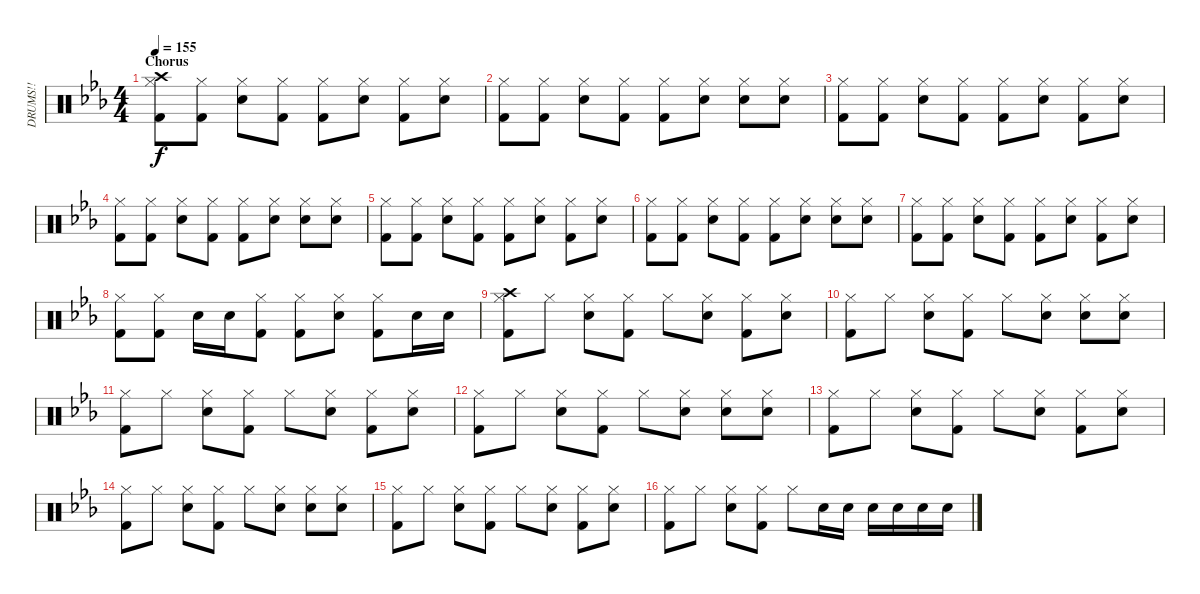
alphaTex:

\track ("DRUMS!!" "DRUMS!!") {instrument percussion}
\staff {score}
\articulation defaults
\ts (4 4)
\section ("" "Chorus")
\tempo 155
\clef neutral
\ks cminor
("Crash high (hit)" "Hi-Hat (closed)" "Kick (hit) 2").8{dy f} ("Hi-Hat (closed)" "Kick (hit) 2").8 ("Hi-Hat (closed)" "Snare (hit) 2").8 ("Hi-Hat (closed)" "Kick (hit) 2").8 ("Hi-Hat (closed)" "Kick (hit) 2").8 ("Hi-Hat (closed)" "Snare (hit) 2").8 ("Hi-Hat (closed)" "Kick (hit) 2").8 ("Hi-Hat (closed)" "Snare (hit) 2").8 |
("Hi-Hat (closed)" "Kick (hit) 2").8 ("Hi-Hat (closed)" "Kick (hit) 2").8 ("Hi-Hat (closed)" "Snare (hit) 2").8 ("Hi-Hat (closed)" "Kick (hit) 2").8 ("Hi-Hat (closed)" "Kick (hit) 2").8 ("Hi-Hat (closed)" "Snare (hit) 2").8 ("Hi-Hat (closed)" "Snare (hit) 2").8 ("Hi-Hat (closed)" "Snare (hit) 2").8 |
("Hi-Hat (closed)" "Kick (hit) 2").8 ("Hi-Hat (closed)" "Kick (hit) 2").8 ("Hi-Hat (closed)" "Snare (hit) 2").8 ("Hi-Hat (closed)" "Kick (hit) 2").8 ("Hi-Hat (closed)" "Kick (hit) 2").8 ("Hi-Hat (closed)" "Snare (hit) 2").8 ("Hi-Hat (closed)" "Kick (hit) 2").8 ("Hi-Hat (closed)" "Snare (hit) 2").8 |
("Hi-Hat (closed)" "Kick (hit) 2").8 ("Hi-Hat (closed)" "Kick (hit) 2").8 ("Hi-Hat (closed)" "Snare (hit) 2").8 ("Hi-Hat (closed)" "Kick (hit) 2").8 ("Hi-Hat (closed)" "Kick (hit) 2").8 ("Hi-Hat (closed)" "Snare (hit) 2").8 ("Hi-Hat (closed)" "Snare (hit) 2").8 ("Hi-Hat (closed)" "Snare (hit) 2").8 |
("Hi-Hat (closed)" "Kick (hit) 2").8 ("Hi-Hat (closed)" "Kick (hit) 2").8 ("Hi-Hat (closed)" "Snare (hit) 2").8 ("Hi-Hat (closed)" "Kick (hit) 2").8 ("Hi-Hat (closed)" "Kick (hit) 2").8 ("Hi-Hat (closed)" "Snare (hit) 2").8 ("Hi-Hat (closed)" "Kick (hit) 2").8 ("Hi-Hat (closed)" "Snare (hit) 2").8 |
("Hi-Hat (closed)" "Kick (hit) 2").8 ("Hi-Hat (closed)" "Kick (hit) 2").8 ("Hi-Hat (closed)" "Snare (hit) 2").8 ("Hi-Hat (closed)" "Kick (hit) 2").8 ("Hi-Hat (closed)" "Kick (hit) 2").8 ("Hi-Hat (closed)" "Snare (hit) 2").8 ("Hi-Hat (closed)" "Snare (hit) 2").8 ("Hi-Hat (closed)" "Snare (hit) 2").8 |
("Hi-Hat (closed)" "Kick (hit) 2").8 ("Hi-Hat (closed)" "Kick (hit) 2").8 ("Hi-Hat (closed)" "Snare (hit) 2").8 ("Hi-Hat (closed)" "Kick (hit) 2").8 ("Hi-Hat (closed)" "Kick (hit) 2").8 ("Hi-Hat (closed)" "Snare (hit) 2").8 ("Hi-Hat (closed)" "Kick (hit) 2").8 ("Hi-Hat (closed)" "Snare (hit) 2").8 |
("Hi-Hat (closed)" "Kick (hit) 2").8 ("Hi-Hat (closed)" "Kick (hit) 2").8 "Snare (hit) 2".16 "Snare (hit) 2".16 ("Hi-Hat (closed)" "Kick (hit) 2").8 ("Hi-Hat (closed)" "Kick (hit) 2").8 ("Hi-Hat (closed)" "Snare (hit) 2").8 ("Hi-Hat (closed)" "Kick (hit) 2").8 "Snare (hit) 2".16 "Snare (hit) 2".16 |
("Crash high (hit)" "Hi-Hat (closed)" "Kick (hit) 2").8 "Hi-Hat (closed)".8 ("Hi-Hat (closed)" "Snare (hit) 2").8 ("Hi-Hat (closed)" "Kick (hit) 2").8 "Hi-Hat (closed)".8 ("Hi-Hat (closed)" "Snare (hit) 2").8 ("Hi-Hat (closed)" "Kick (hit) 2").8 ("Hi-Hat (closed)" "Snare (hit) 2").8 |
("Hi-Hat (closed)" "Kick (hit) 2").8 "Hi-Hat (closed)".8 ("Hi-Hat (closed)" "Snare (hit) 2").8 ("Hi-Hat (closed)" "Kick (hit) 2").8 "Hi-Hat (closed)".8 ("Hi-Hat (closed)" "Snare (hit) 2").8 ("Hi-Hat (closed)" "Snare (hit) 2").8 ("Hi-Hat (closed)" "Snare (hit) 2").8 |
("Hi-Hat (closed)" "Kick (hit) 2").8 "Hi-Hat (closed)".8 ("Hi-Hat (closed)" "Snare (hit) 2").8 ("Hi-Hat (closed)" "Kick (hit) 2").8 "Hi-Hat (closed)".8 ("Hi-Hat (closed)" "Snare (hit) 2").8 ("Hi-Hat (closed)" "Kick (hit) 2").8 ("Hi-Hat (closed)" "Snare (hit) 2").8 |
("Hi-Hat (closed)" "Kick (hit) 2").8 "Hi-Hat (closed)".8 ("Hi-Hat (closed)" "Snare (hit) 2").8 ("Hi-Hat (closed)" "Kick (hit) 2").8 "Hi-Hat (closed)".8 ("Hi-Hat (closed)" "Snare (hit) 2").8 ("Hi-Hat (closed)" "Snare (hit) 2").8 ("Hi-Hat (closed)" "Snare (hit) 2").8 |
("Hi-Hat (closed)" "Kick (hit) 2").8 "Hi-Hat (closed)".8 ("Hi-Hat (closed)" "Snare (hit) 2").8 ("Hi-Hat (closed)" "Kick (hit) 2").8 "Hi-Hat (closed)".8 ("Hi-Hat (closed)" "Snare (hit) 2").8 ("Hi-Hat (closed)" "Kick (hit) 2").8 ("Hi-Hat (closed)" "Snare (hit) 2").8 |
("Hi-Hat (closed)" "Kick (hit) 2").8 "Hi-Hat (closed)".8 ("Hi-Hat (closed)" "Snare (hit) 2").8 ("Hi-Hat (closed)" "Kick (hit) 2").8 "Hi-Hat (closed)".8 ("Hi-Hat (closed)" "Snare (hit) 2").8 ("Hi-Hat (closed)" "Snare (hit) 2").8 ("Hi-Hat (closed)" "Snare (hit) 2").8 |
("Hi-Hat (closed)" "Kick (hit) 2").8 "Hi-Hat (closed)".8 ("Hi-Hat (closed)" "Snare (hit) 2").8 ("Hi-Hat (closed)" "Kick (hit) 2").8 "Hi-Hat (closed)".8 ("Hi-Hat (closed)" "Snare (hit) 2").8 ("Hi-Hat (closed)" "Kick (hit) 2").8 ("Hi-Hat (closed)" "Snare (hit) 2").8 |
("Hi-Hat (closed)" "Kick (hit) 2").8 "Hi-Hat (closed)".8 ("Hi-Hat (closed)" "Snare (hit) 2").8 ("Hi-Hat (closed)" "Kick (hit) 2").8 "Hi-Hat (closed)".8 "Snare (hit) 2".16 "Snare (hit) 2".16 "Snare (hit) 2".16 "Snare (hit) 2".16 "Snare (hit) 2".16 "Snare (hit) 2".16
